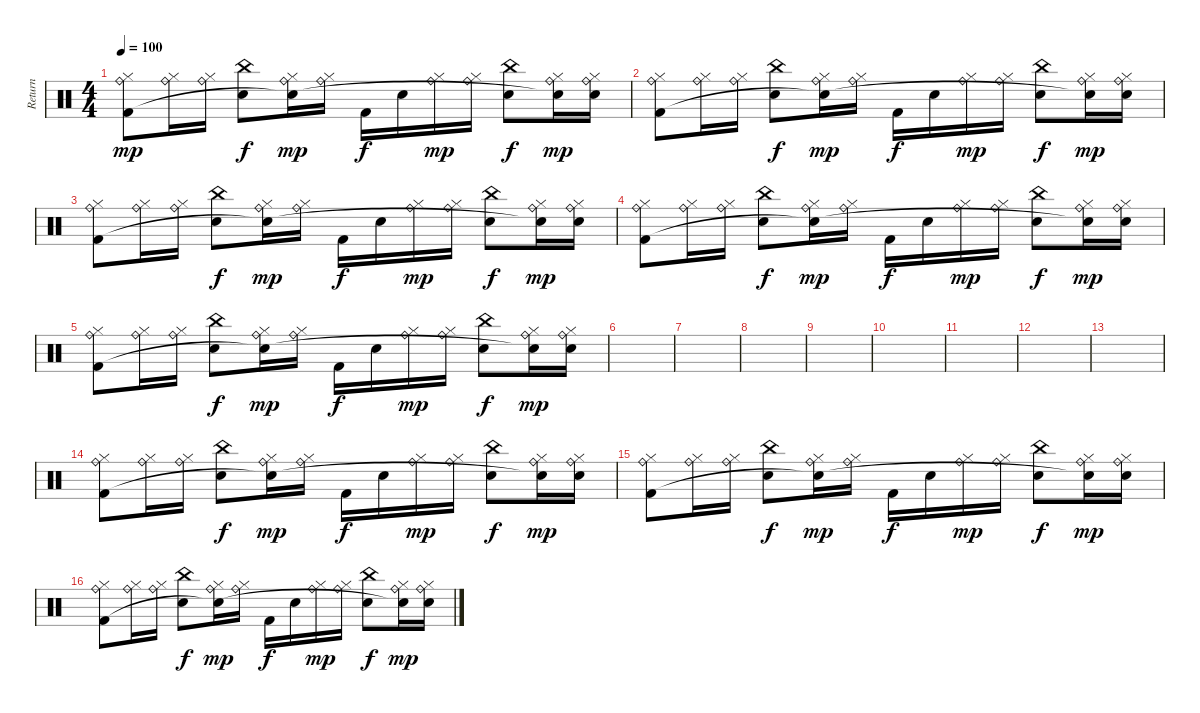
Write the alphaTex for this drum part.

\track ("    Return" "    Return") {instrument percussion}
\staff {score}
\articulation defaults
\ts (4 4)
\tempo 100
\clef neutral
\ks c
("Hi-Hat (closed)" "Ride (bell)" "Kick (hit) 2").8{dy mp} ("Hi-Hat (closed)" "Ride (bell)").16 ("Hi-Hat (closed)" "Ride (bell)").16 ("Electric Snare (hit)" "China (hit)").8{dy f} ("Hi-Hat (closed)" "Ride (bell)" "Snare (hit)"{t}).16{dy mp} ("Hi-Hat (closed)" "Ride (bell)").16 "Kick (hit) 2".16{dy f} "Snare (hit) 2".16 ("Hi-Hat (closed)" "Ride (bell)").16{dy mp} ("Hi-Hat (closed)" "Ride (bell)").16 ("Electric Snare (hit)" "China (hit)").8{dy f} ("Hi-Hat (closed)" "Ride (bell)" "Snare (hit)"{t}).16{dy mp} ("Hi-Hat (closed)" "Ride (bell)" "Snare (hit) 2").16 |
("Hi-Hat (closed)" "Ride (bell)" "Kick (hit) 2").8 ("Hi-Hat (closed)" "Ride (bell)").16 ("Hi-Hat (closed)" "Ride (bell)").16 ("Electric Snare (hit)" "China (hit)").8{dy f} ("Hi-Hat (closed)" "Ride (bell)" "Snare (hit)"{t}).16{dy mp} ("Hi-Hat (closed)" "Ride (bell)").16 "Kick (hit) 2".16{dy f} "Snare (hit) 2".16 ("Hi-Hat (closed)" "Ride (bell)").16{dy mp} ("Hi-Hat (closed)" "Ride (bell)").16 ("Electric Snare (hit)" "China (hit)").8{dy f} ("Hi-Hat (closed)" "Ride (bell)" "Snare (hit)"{t}).16{dy mp} ("Hi-Hat (closed)" "Ride (bell)" "Snare (hit) 2").16 |
("Hi-Hat (closed)" "Ride (bell)" "Kick (hit) 2").8 ("Hi-Hat (closed)" "Ride (bell)").16 ("Hi-Hat (closed)" "Ride (bell)").16 ("Electric Snare (hit)" "China (hit)").8{dy f} ("Hi-Hat (closed)" "Ride (bell)" "Snare (hit)"{t}).16{dy mp} ("Hi-Hat (closed)" "Ride (bell)").16 "Kick (hit) 2".16{dy f} "Snare (hit) 2".16 ("Hi-Hat (closed)" "Ride (bell)").16{dy mp} ("Hi-Hat (closed)" "Ride (bell)").16 ("Electric Snare (hit)" "China (hit)").8{dy f} ("Hi-Hat (closed)" "Ride (bell)" "Snare (hit)"{t}).16{dy mp} ("Hi-Hat (closed)" "Ride (bell)" "Snare (hit) 2").16 |
("Hi-Hat (closed)" "Ride (bell)" "Kick (hit) 2").8 ("Hi-Hat (closed)" "Ride (bell)").16 ("Hi-Hat (closed)" "Ride (bell)").16 ("Electric Snare (hit)" "China (hit)").8{dy f} ("Hi-Hat (closed)" "Ride (bell)" "Snare (hit)"{t}).16{dy mp} ("Hi-Hat (closed)" "Ride (bell)").16 "Kick (hit) 2".16{dy f} "Snare (hit) 2".16 ("Hi-Hat (closed)" "Ride (bell)").16{dy mp} ("Hi-Hat (closed)" "Ride (bell)").16 ("Electric Snare (hit)" "China (hit)").8{dy f} ("Hi-Hat (closed)" "Ride (bell)" "Snare (hit)"{t}).16{dy mp} ("Hi-Hat (closed)" "Ride (bell)" "Snare (hit) 2").16 |
("Hi-Hat (closed)" "Ride (bell)" "Kick (hit) 2").8 ("Hi-Hat (closed)" "Ride (bell)").16 ("Hi-Hat (closed)" "Ride (bell)").16 ("Electric Snare (hit)" "China (hit)").8{dy f} ("Hi-Hat (closed)" "Ride (bell)" "Snare (hit)"{t}).16{dy mp} ("Hi-Hat (closed)" "Ride (bell)").16 "Kick (hit) 2".16{dy f} "Snare (hit) 2".16 ("Hi-Hat (closed)" "Ride (bell)").16{dy mp} ("Hi-Hat (closed)" "Ride (bell)").16 ("Electric Snare (hit)" "China (hit)").8{dy f} ("Hi-Hat (closed)" "Ride (bell)" "Snare (hit)"{t}).16{dy mp} ("Hi-Hat (closed)" "Ride (bell)" "Snare (hit) 2").16 |
|
|
|
|
|
|
|
|
("Hi-Hat (closed)" "Ride (bell)" "Kick (hit) 2").8 ("Hi-Hat (closed)" "Ride (bell)").16 ("Hi-Hat (closed)" "Ride (bell)").16 ("Electric Snare (hit)" "China (hit)").8{dy f} ("Hi-Hat (closed)" "Ride (bell)" "Snare (hit)"{t}).16{dy mp} ("Hi-Hat (closed)" "Ride (bell)").16 "Kick (hit) 2".16{dy f} "Snare (hit) 2".16 ("Hi-Hat (closed)" "Ride (bell)").16{dy mp} ("Hi-Hat (closed)" "Ride (bell)").16 ("Electric Snare (hit)" "China (hit)").8{dy f} ("Hi-Hat (closed)" "Ride (bell)" "Snare (hit)"{t}).16{dy mp} ("Hi-Hat (closed)" "Ride (bell)" "Snare (hit) 2").16 |
("Hi-Hat (closed)" "Ride (bell)" "Kick (hit) 2").8 ("Hi-Hat (closed)" "Ride (bell)").16 ("Hi-Hat (closed)" "Ride (bell)").16 ("Electric Snare (hit)" "China (hit)").8{dy f} ("Hi-Hat (closed)" "Ride (bell)" "Snare (hit)"{t}).16{dy mp} ("Hi-Hat (closed)" "Ride (bell)").16 "Kick (hit) 2".16{dy f} "Snare (hit) 2".16 ("Hi-Hat (closed)" "Ride (bell)").16{dy mp} ("Hi-Hat (closed)" "Ride (bell)").16 ("Electric Snare (hit)" "China (hit)").8{dy f} ("Hi-Hat (closed)" "Ride (bell)" "Snare (hit)"{t}).16{dy mp} ("Hi-Hat (closed)" "Ride (bell)" "Snare (hit) 2").16 |
("Hi-Hat (closed)" "Ride (bell)" "Kick (hit) 2").8 ("Hi-Hat (closed)" "Ride (bell)").16 ("Hi-Hat (closed)" "Ride (bell)").16 ("Electric Snare (hit)" "China (hit)").8{dy f} ("Hi-Hat (closed)" "Ride (bell)" "Snare (hit)"{t}).16{dy mp} ("Hi-Hat (closed)" "Ride (bell)").16 "Kick (hit) 2".16{dy f} "Snare (hit) 2".16 ("Hi-Hat (closed)" "Ride (bell)").16{dy mp} ("Hi-Hat (closed)" "Ride (bell)").16 ("Electric Snare (hit)" "China (hit)").8{dy f} ("Hi-Hat (closed)" "Ride (bell)" "Snare (hit)"{t}).16{dy mp} ("Hi-Hat (closed)" "Ride (bell)" "Snare (hit) 2").16
